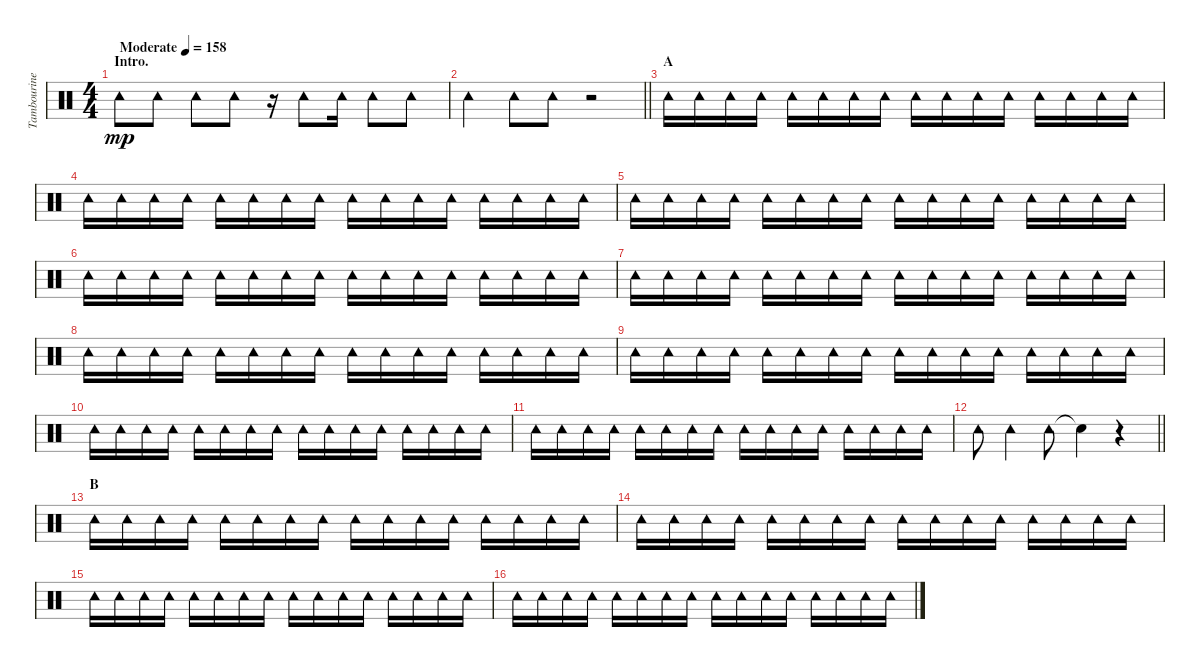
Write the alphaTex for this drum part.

\track ("Tambourine" "Tambourine") {instrument percussion}
\staff {score}
\articulation defaults
\ts (4 4)
\section ("" "Intro.")
\tempo (158 "Moderate")
\clef neutral
\ks c "Tambourine (hit)".8{dy mp} "Tambourine (hit)".8 "Tambourine (hit)".8 "Tambourine (hit)".8
r.16 "Tambourine (hit)".8 "Tambourine (hit)".16 "Tambourine (hit)".8 "Tambourine (hit)".8 |
\barLineRight lightlight "Tambourine (hit)".4 "Tambourine (hit)".8 "Tambourine (hit)".8
r.2 |
\section ("" "A")
"Tambourine (hit)".16 "Tambourine (hit)".16 "Tambourine (hit)".16 "Tambourine (hit)".16 "Tambourine (hit)".16 "Tambourine (hit)".16 "Tambourine (hit)".16 "Tambourine (hit)".16 "Tambourine (hit)".16 "Tambourine (hit)".16 "Tambourine (hit)".16 "Tambourine (hit)".16 "Tambourine (hit)".16 "Tambourine (hit)".16 "Tambourine (hit)".16 "Tambourine (hit)".16 |
"Tambourine (hit)".16 "Tambourine (hit)".16 "Tambourine (hit)".16 "Tambourine (hit)".16 "Tambourine (hit)".16 "Tambourine (hit)".16 "Tambourine (hit)".16 "Tambourine (hit)".16 "Tambourine (hit)".16 "Tambourine (hit)".16 "Tambourine (hit)".16 "Tambourine (hit)".16 "Tambourine (hit)".16 "Tambourine (hit)".16 "Tambourine (hit)".16 "Tambourine (hit)".16 |
"Tambourine (hit)".16 "Tambourine (hit)".16 "Tambourine (hit)".16 "Tambourine (hit)".16 "Tambourine (hit)".16 "Tambourine (hit)".16 "Tambourine (hit)".16 "Tambourine (hit)".16 "Tambourine (hit)".16 "Tambourine (hit)".16 "Tambourine (hit)".16 "Tambourine (hit)".16 "Tambourine (hit)".16 "Tambourine (hit)".16 "Tambourine (hit)".16 "Tambourine (hit)".16 |
"Tambourine (hit)".16 "Tambourine (hit)".16 "Tambourine (hit)".16 "Tambourine (hit)".16 "Tambourine (hit)".16 "Tambourine (hit)".16 "Tambourine (hit)".16 "Tambourine (hit)".16 "Tambourine (hit)".16 "Tambourine (hit)".16 "Tambourine (hit)".16 "Tambourine (hit)".16 "Tambourine (hit)".16 "Tambourine (hit)".16 "Tambourine (hit)".16 "Tambourine (hit)".16 |
"Tambourine (hit)".16 "Tambourine (hit)".16 "Tambourine (hit)".16 "Tambourine (hit)".16 "Tambourine (hit)".16 "Tambourine (hit)".16 "Tambourine (hit)".16 "Tambourine (hit)".16 "Tambourine (hit)".16 "Tambourine (hit)".16 "Tambourine (hit)".16 "Tambourine (hit)".16 "Tambourine (hit)".16 "Tambourine (hit)".16 "Tambourine (hit)".16 "Tambourine (hit)".16 |
"Tambourine (hit)".16 "Tambourine (hit)".16 "Tambourine (hit)".16 "Tambourine (hit)".16 "Tambourine (hit)".16 "Tambourine (hit)".16 "Tambourine (hit)".16 "Tambourine (hit)".16 "Tambourine (hit)".16 "Tambourine (hit)".16 "Tambourine (hit)".16 "Tambourine (hit)".16 "Tambourine (hit)".16 "Tambourine (hit)".16 "Tambourine (hit)".16 "Tambourine (hit)".16 |
"Tambourine (hit)".16 "Tambourine (hit)".16 "Tambourine (hit)".16 "Tambourine (hit)".16 "Tambourine (hit)".16 "Tambourine (hit)".16 "Tambourine (hit)".16 "Tambourine (hit)".16 "Tambourine (hit)".16 "Tambourine (hit)".16 "Tambourine (hit)".16 "Tambourine (hit)".16 "Tambourine (hit)".16 "Tambourine (hit)".16 "Tambourine (hit)".16 "Tambourine (hit)".16 |
"Tambourine (hit)".16 "Tambourine (hit)".16 "Tambourine (hit)".16 "Tambourine (hit)".16 "Tambourine (hit)".16 "Tambourine (hit)".16 "Tambourine (hit)".16 "Tambourine (hit)".16 "Tambourine (hit)".16 "Tambourine (hit)".16 "Tambourine (hit)".16 "Tambourine (hit)".16 "Tambourine (hit)".16 "Tambourine (hit)".16 "Tambourine (hit)".16 "Tambourine (hit)".16 |
"Tambourine (hit)".16 "Tambourine (hit)".16 "Tambourine (hit)".16 "Tambourine (hit)".16 "Tambourine (hit)".16 "Tambourine (hit)".16 "Tambourine (hit)".16 "Tambourine (hit)".16 "Tambourine (hit)".16 "Tambourine (hit)".16 "Tambourine (hit)".16 "Tambourine (hit)".16 "Tambourine (hit)".16 "Tambourine (hit)".16 "Tambourine (hit)".16 "Tambourine (hit)".16 |
\barLineRight lightlight "Tambourine (hit)".8 "Tambourine (hit)".4 "Tambourine (hit)".8 "Snare (hit)"{t}.4
r.4 |
\section ("" "B")
"Tambourine (hit)".16 "Tambourine (hit)".16 "Tambourine (hit)".16 "Tambourine (hit)".16 "Tambourine (hit)".16 "Tambourine (hit)".16 "Tambourine (hit)".16 "Tambourine (hit)".16 "Tambourine (hit)".16 "Tambourine (hit)".16 "Tambourine (hit)".16 "Tambourine (hit)".16 "Tambourine (hit)".16 "Tambourine (hit)".16 "Tambourine (hit)".16 "Tambourine (hit)".16 |
"Tambourine (hit)".16 "Tambourine (hit)".16 "Tambourine (hit)".16 "Tambourine (hit)".16 "Tambourine (hit)".16 "Tambourine (hit)".16 "Tambourine (hit)".16 "Tambourine (hit)".16 "Tambourine (hit)".16 "Tambourine (hit)".16 "Tambourine (hit)".16 "Tambourine (hit)".16 "Tambourine (hit)".16 "Tambourine (hit)".16 "Tambourine (hit)".16 "Tambourine (hit)".16 |
"Tambourine (hit)".16 "Tambourine (hit)".16 "Tambourine (hit)".16 "Tambourine (hit)".16 "Tambourine (hit)".16 "Tambourine (hit)".16 "Tambourine (hit)".16 "Tambourine (hit)".16 "Tambourine (hit)".16 "Tambourine (hit)".16 "Tambourine (hit)".16 "Tambourine (hit)".16 "Tambourine (hit)".16 "Tambourine (hit)".16 "Tambourine (hit)".16 "Tambourine (hit)".16 |
"Tambourine (hit)".16 "Tambourine (hit)".16 "Tambourine (hit)".16 "Tambourine (hit)".16 "Tambourine (hit)".16 "Tambourine (hit)".16 "Tambourine (hit)".16 "Tambourine (hit)".16 "Tambourine (hit)".16 "Tambourine (hit)".16 "Tambourine (hit)".16 "Tambourine (hit)".16 "Tambourine (hit)".16 "Tambourine (hit)".16 "Tambourine (hit)".16 "Tambourine (hit)".16
